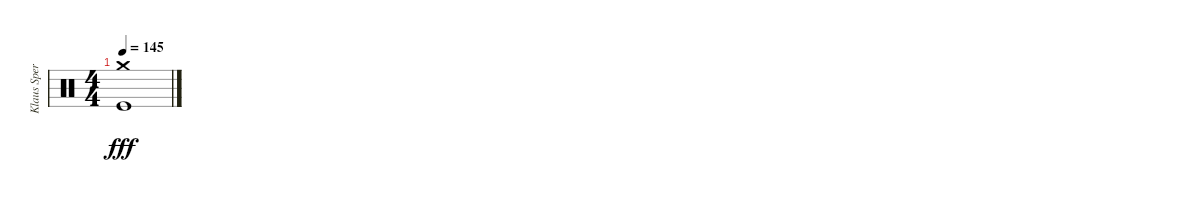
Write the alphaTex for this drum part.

\track ("Klaus Sperling" "Klaus Sper") {instrument percussion}
\staff {score}
\articulation defaults
\ts (4 4)
\tempo 145
\clef neutral
\ks c
("Crash medium (hit)" "Kick (hit)").1{dy fff}
